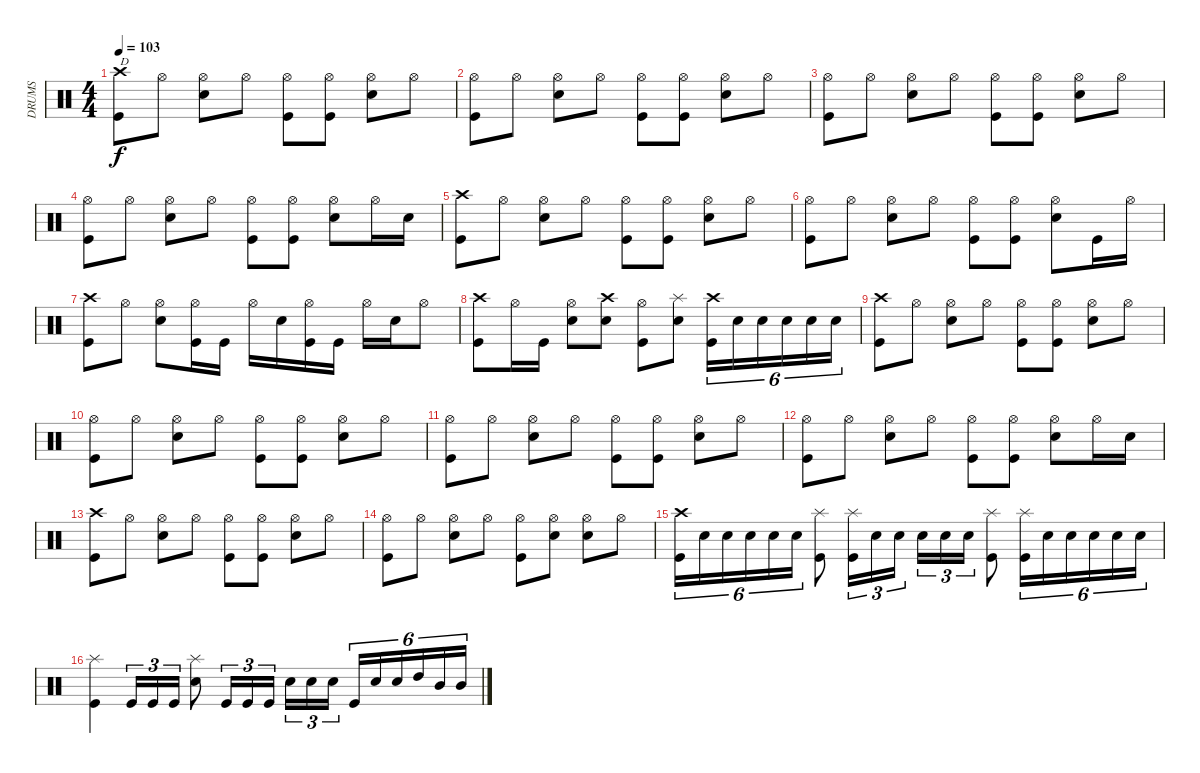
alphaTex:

\track ("DRUMS" "DRUMS") {instrument percussion}
\staff {score}
\articulation defaults
\ts (4 4)
\tempo 103
\clef neutral
\ks c
("Crash high (hit)" "Kick (hit)").8{txt "D" dy f} "Hi-Hat (open)".8 ("Hi-Hat (open)" "Electric Snare (hit)").8 "Hi-Hat (open)".8 ("Hi-Hat (open)" "Kick (hit)").8 ("Hi-Hat (open)" "Kick (hit)").8 ("Hi-Hat (open)" "Electric Snare (hit)").8 "Hi-Hat (open)".8 |
("Hi-Hat (open)" "Kick (hit)").8 "Hi-Hat (open)".8 ("Hi-Hat (open)" "Electric Snare (hit)").8 "Hi-Hat (open)".8 ("Hi-Hat (open)" "Kick (hit)").8 ("Hi-Hat (open)" "Kick (hit)").8 ("Hi-Hat (open)" "Electric Snare (hit)").8 "Hi-Hat (open)".8 |
("Hi-Hat (open)" "Kick (hit)").8 "Hi-Hat (open)".8 ("Hi-Hat (open)" "Electric Snare (hit)").8 "Hi-Hat (open)".8 ("Hi-Hat (open)" "Kick (hit)").8 ("Hi-Hat (open)" "Kick (hit)").8 ("Hi-Hat (open)" "Electric Snare (hit)").8 "Hi-Hat (open)".8 |
("Hi-Hat (open)" "Kick (hit)").8 "Hi-Hat (open)".8 ("Hi-Hat (open)" "Electric Snare (hit)").8 "Hi-Hat (open)".8 ("Hi-Hat (open)" "Kick (hit)").8 ("Hi-Hat (open)" "Kick (hit)").8 ("Hi-Hat (open)" "Electric Snare (hit)").8 "Hi-Hat (open)".16 "Electric Snare (hit)".16 |
("Crash high (hit)" "Kick (hit)").8 "Hi-Hat (open)".8 ("Hi-Hat (open)" "Electric Snare (hit)").8 "Hi-Hat (open)".8 ("Hi-Hat (open)" "Kick (hit)").8 ("Hi-Hat (open)" "Kick (hit)").8 ("Hi-Hat (open)" "Electric Snare (hit)").8 "Hi-Hat (open)".8 |
("Hi-Hat (open)" "Kick (hit)").8 "Hi-Hat (open)".8 ("Hi-Hat (open)" "Electric Snare (hit)").8 "Hi-Hat (open)".8 ("Hi-Hat (open)" "Kick (hit)").8 ("Hi-Hat (open)" "Kick (hit)").8 ("Hi-Hat (open)" "Electric Snare (hit)").8 "Kick (hit)".16 "Hi-Hat (open)".16 |
("Crash high (hit)" "Kick (hit)").8 "Hi-Hat (open)".8 ("Hi-Hat (open)" "Electric Snare (hit)").8 ("Hi-Hat (open)" "Kick (hit)").16 "Kick (hit)".16 "Hi-Hat (open)".16 "Electric Snare (hit)".16 ("Hi-Hat (open)" "Kick (hit)").16 "Kick (hit)".16 "Hi-Hat (open)".16 "Electric Snare (hit)".16 "Hi-Hat (open)".8 |
("Crash high (hit)" "Kick (hit)").8 "Hi-Hat (open)".16 "Kick (hit)".16 ("Hi-Hat (open)" "Electric Snare (hit)").8 ("Crash high (hit)" "Electric Snare (hit)").8 ("Hi-Hat (open)" "Kick (hit)").8 ("Splash (hit)" "Electric Snare (hit)").8 ("Crash high (hit)" "Kick (hit)").16{tu (6 4)} "Electric Snare (hit)".16{tu (6 4)} "Electric Snare (hit)".16{tu (6 4)} "Electric Snare (hit)".16{tu (6 4)} "Electric Snare (hit)".16{tu (6 4)} "Electric Snare (hit)".16{tu (6 4)} |
("Crash high (hit)" "Kick (hit)").8 "Hi-Hat (open)".8 ("Hi-Hat (open)" "Electric Snare (hit)").8 "Hi-Hat (open)".8 ("Hi-Hat (open)" "Kick (hit)").8 ("Hi-Hat (open)" "Kick (hit)").8 ("Hi-Hat (open)" "Electric Snare (hit)").8 "Hi-Hat (open)".8 |
("Hi-Hat (open)" "Kick (hit)").8 "Hi-Hat (open)".8 ("Hi-Hat (open)" "Electric Snare (hit)").8 "Hi-Hat (open)".8 ("Hi-Hat (open)" "Kick (hit)").8 ("Hi-Hat (open)" "Kick (hit)").8 ("Hi-Hat (open)" "Electric Snare (hit)").8 "Hi-Hat (open)".8 |
("Hi-Hat (open)" "Kick (hit)").8 "Hi-Hat (open)".8 ("Hi-Hat (open)" "Electric Snare (hit)").8 "Hi-Hat (open)".8 ("Hi-Hat (open)" "Kick (hit)").8 ("Hi-Hat (open)" "Kick (hit)").8 ("Hi-Hat (open)" "Electric Snare (hit)").8 "Hi-Hat (open)".8 |
("Hi-Hat (open)" "Kick (hit)").8 "Hi-Hat (open)".8 ("Hi-Hat (open)" "Electric Snare (hit)").8 "Hi-Hat (open)".8 ("Hi-Hat (open)" "Kick (hit)").8 ("Hi-Hat (open)" "Kick (hit)").8 ("Hi-Hat (open)" "Electric Snare (hit)").8 "Hi-Hat (open)".16 "Electric Snare (hit)".16 |
("Crash high (hit)" "Kick (hit)").8 "Hi-Hat (open)".8 ("Hi-Hat (open)" "Electric Snare (hit)").8 "Hi-Hat (open)".8 ("Hi-Hat (open)" "Kick (hit)").8 ("Hi-Hat (open)" "Kick (hit)").8 ("Hi-Hat (open)" "Electric Snare (hit)").8 "Hi-Hat (open)".8 |
("Hi-Hat (open)" "Kick (hit)").8 "Hi-Hat (open)".8 ("Hi-Hat (open)" "Electric Snare (hit)").8 "Hi-Hat (open)".8 ("Hi-Hat (open)" "Kick (hit)").8 ("Hi-Hat (open)" "Electric Snare (hit)").8 ("Hi-Hat (open)" "Electric Snare (hit)").8 "Hi-Hat (open)".8 |
("Crash high (hit)" "Kick (hit)").16{tu (6 4)} "Electric Snare (hit)".16{tu (6 4)} "Electric Snare (hit)".16{tu (6 4)} "Electric Snare (hit)".16{tu (6 4)} "Electric Snare (hit)".16{tu (6 4)} "Electric Snare (hit)".16{tu (6 4)} ("Splash (hit)" "Kick (hit)").8 ("Splash (hit)" "Kick (hit)").16{tu (3 2)} "Electric Snare (hit)".16{tu (3 2)} "Electric Snare (hit)".16{tu (3 2)} "Electric Snare (hit)".16{tu (3 2)} "Electric Snare (hit)".16{tu (3 2)} "Electric Snare (hit)".16{tu (3 2)} ("Splash (hit)" "Kick (hit)").8 ("Splash (hit)" "Kick (hit)").16{tu (6 4)} "Electric Snare (hit)".16{tu (6 4)} "Electric Snare (hit)".16{tu (6 4)} "Electric Snare (hit)".16{tu (6 4)} "Electric Snare (hit)".16{tu (6 4)} "Electric Snare (hit)".16{tu (6 4)} |
("Splash (hit)" "Kick (hit)").4 "Kick (hit)".16{tu (3 2)} "Kick (hit)".16{tu (3 2)} "Kick (hit)".16{tu (3 2)} ("Splash (hit)" "Electric Snare (hit)").8 "Kick (hit)".16{tu (3 2)} "Kick (hit)".16{tu (3 2)} "Kick (hit)".16{tu (3 2)} "Electric Snare (hit)".16{tu (3 2)} "Electric Snare (hit)".16{tu (3 2)} "Electric Snare (hit)".16{tu (3 2)} "Kick (hit)".16{tu (6 4)} "Electric Snare (hit)".16{tu (6 4)} "Electric Snare (hit)".16{tu (6 4)} "High Tom (hit)".16{tu (6 4)} "Mid Tom (hit)".16{tu (6 4)} "Mid Tom (hit)".16{tu (6 4)}
